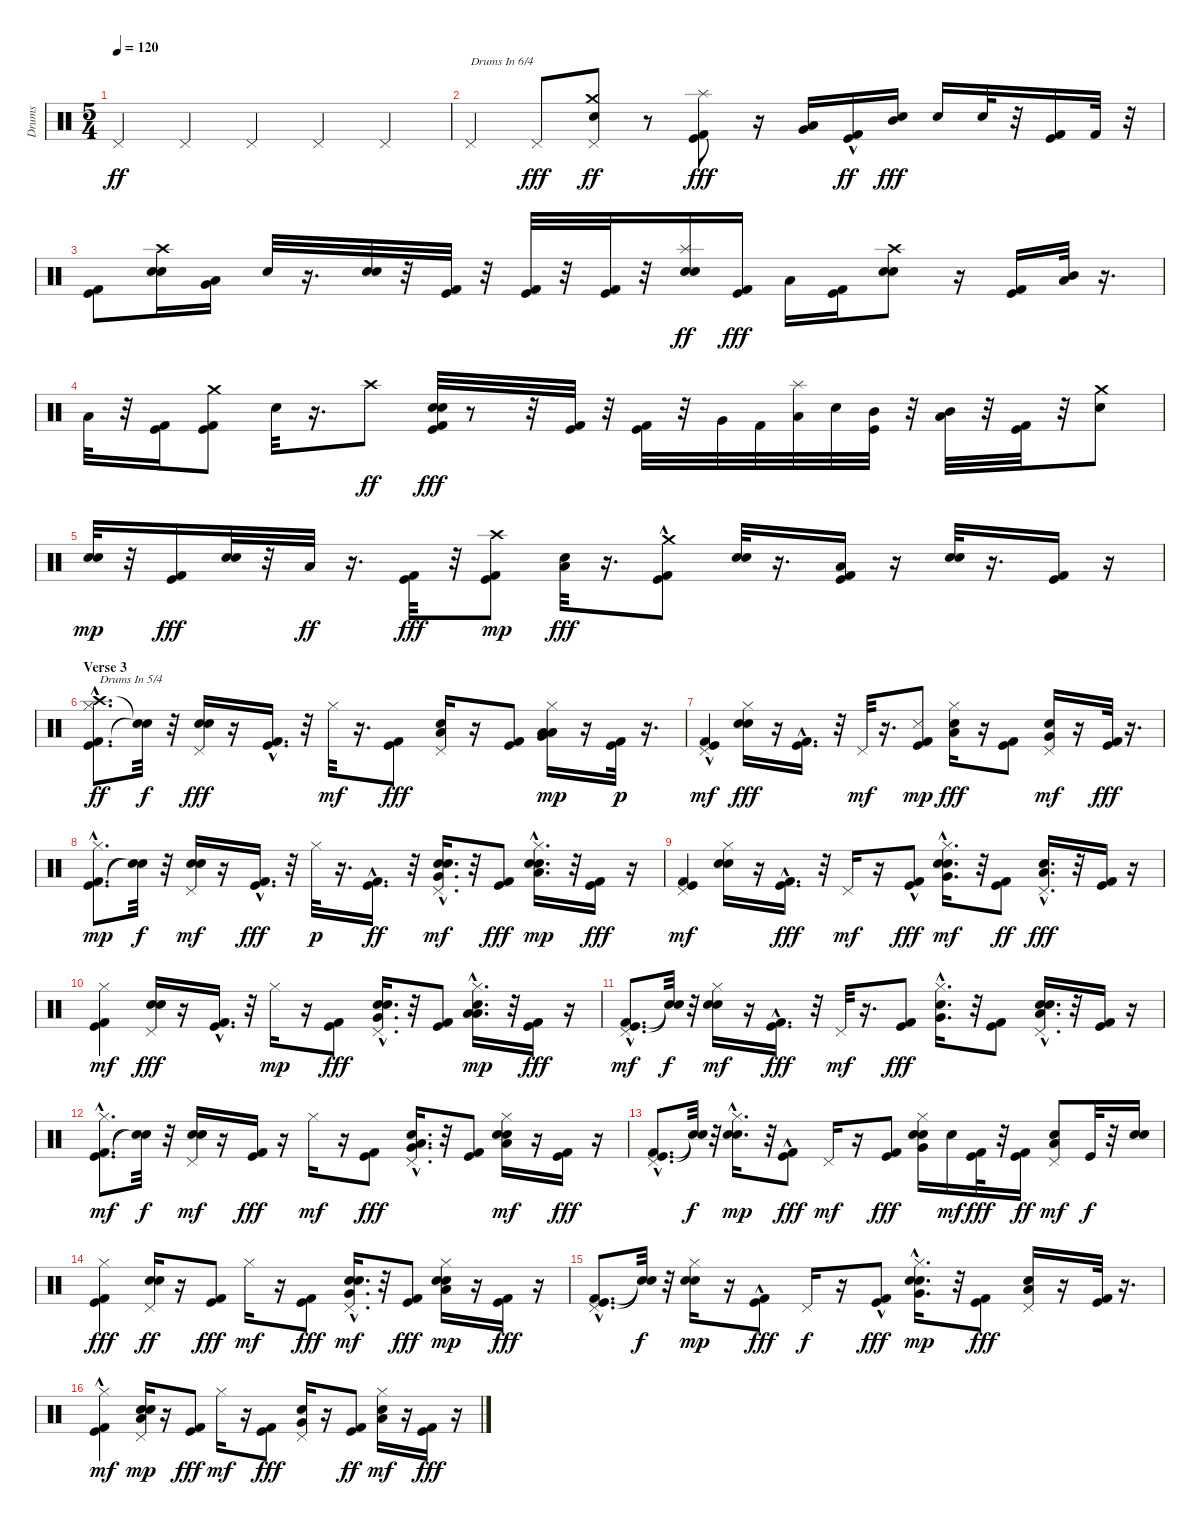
\track ("Drums" "Drums") {instrument percussion}
\staff {score}
\articulation defaults
\ts (5 4)
\tempo 120
\clef neutral
\ks c "Pedal Hi-Hat (hit)".4{dy ff} "Pedal Hi-Hat (hit)".4 "Pedal Hi-Hat (hit)".4 "Pedal Hi-Hat (hit)".4 "Pedal Hi-Hat (hit)".4
|
"Pedal Hi-Hat (hit)".4{txt "Drums In 6/4"} "Pedal Hi-Hat (hit)".8{dy fff} ("Crash medium (hit)" "Snare (hit) 2" "Pedal Hi-Hat (hit)").8{dy ff} r.8 ("Splash (hit)" "Kick (hit) 2" "Kick (hit)").8{dy fff} r.16 ("Low Tom (hit)" "Very Low Tom (hit)").16 ("Kick (hit)"{hac} "Kick (hit) 2").16{dy ff} ("Electric Snare (hit)" "Mid Tom (hit)").16{dy fff} "Snare (hit) 2".16 "Electric Snare (hit)".32 r.32 ("Kick (hit) 2" "Kick (hit)").16 "Kick (hit) 2".32 r.32 |
("Kick (hit) 2" "Kick (hit)").8 ("Crash high (hit)" "Electric Snare (hit)" "Snare (hit) 2").16 ("Very Low Tom (hit)" "Low Tom (hit)").16 "Electric Snare (hit)".32 r.16{d} ("Electric Snare (hit)" "Snare (hit) 2").32 r.32 ("Kick (hit) 2" "Kick (hit)").32 r.32 ("Kick (hit) 2" "Kick (hit)").32 r.32 ("Kick (hit)" "Kick (hit) 2").32 r.32 ("Splash (hit)" "Electric Snare (hit)" "Snare (hit) 2").16{dy ff} ("Kick (hit) 2" "Kick (hit)").16{dy fff} "Low Floor Tom (hit)".16 ("Kick (hit)" "Kick (hit) 2").16 ("Crash high (hit)" "Electric Snare (hit)" "Snare (hit) 2").8 r.16 ("Kick (hit) 2" "Kick (hit)").16 ("Low Tom (hit)" "Mid Tom (hit)").32 r.16{d} |
"Low Floor Tom (hit)".32 r.32 ("Kick (hit) 2" "Kick (hit)").16 ("Crash medium (hit)" "Kick (hit)" "Kick (hit) 2").8 "Snare (hit) 2".32 r.16{d} "Crash high (hit)".8{dy ff} ("Kick (hit) 2" "Kick (hit)" "Snare (hit) 2" "Electric Snare (hit)").32{dy fff} r.8 r.32 ("Kick (hit) 2" "Kick (hit)").32 r.32 ("Kick (hit)" "Kick (hit) 2").32 r.32 "Very Low Tom (hit)".32 "Kick (hit) 2".32 ("Splash (hit)" "Low Tom (hit)").32 "Electric Snare (hit)".32 ("Mid Tom (hit)" "Kick (hit)").32 r.32 ("Mid Tom (hit)" "Low Tom (hit)").32 r.32 ("Kick (hit)" "Kick (hit) 2").32 r.32 ("Snare (hit) 2" "Crash medium (hit)").8 |
("Snare (hit) 2" "Electric Snare (hit)").32{dy mp} r.32 ("Kick (hit) 2" "Kick (hit)").16{dy fff} ("Electric Snare (hit)" "Snare (hit) 2").32 r.32 "Low Floor Tom (hit)".32{dy ff} r.16{d} ("Kick (hit) 2" "Kick (hit)").32{dy fff} r.32 ("Crash high (hit)" "Kick (hit) 2" "Kick (hit)").8{dy mp} ("Electric Snare (hit)" "Low Floor Tom (hit)").32{dy fff} r.16{d} ("Crash medium (hit)" "Kick (hit)"{hac} "Kick (hit) 2"{hac}).8 ("Snare (hit) 2" "Electric Snare (hit)").32 r.16{d} ("Low Floor Tom (hit)" "Kick (hit)" "Kick (hit) 2").16 r.16 ("Electric Snare (hit)" "Snare (hit) 2").32 r.16{d} ("Kick (hit) 2" "Kick (hit)").16 r.16 |
\section ("" "Verse 3")
("Crash high (hit)" "Kick (hit) 2"{hac} "Kick (hit)"{hac} "Hi-Hat (closed)").8{d txt "Drums In 5/4" dy ff} ("Snare (hit)"{t} "Snare (hit)"{t}).32{dy f} r.32 ("Electric Snare (hit)" "Snare (hit) 2" "Pedal Hi-Hat (hit)").16{dy fff} r.16 ("Kick (hit) 2" "Kick (hit)"{hac}).16{d} r.32 "Hi-Hat (closed)".32{dy mf} r.16{d} ("Kick (hit) 2" "Kick (hit)").8{dy fff} ("Snare (hit) 2" "Low Floor Tom (hit)" "Pedal Hi-Hat (hit)").16 r.16 ("Kick (hit)" "Kick (hit) 2").8 ("Low Tom (hit)" "Very Low Tom (hit)" "Low Floor Tom (hit)" "Hi-Hat (closed)").16{dy mp} r.16 ("Kick (hit) 2" "Kick (hit)").32{dy p} r.16{d} |
("Kick (hit) 2"{hac} "Kick (hit)" "Pedal Hi-Hat (hit)").4{dy mf} ("Snare (hit) 2" "Electric Snare (hit)" "Hi-Hat (closed)").16{dy fff} r.16 ("Kick (hit)" "Kick (hit) 2"{hac}).16{d} r.32 "Pedal Hi-Hat (hit)".32{dy mf} r.16{d} ("Kick (hit) 2" "Kick (hit)" "Metronome (hit)").8{dy mp} ("Hi-Hat (closed)" "Snare (hit) 2" "Low Floor Tom (hit)").16{dy fff} r.16 ("Kick (hit)" "Kick (hit) 2").8 ("Very Low Tom (hit)" "Snare (hit) 2" "Pedal Hi-Hat (hit)").16{dy mf} r.16 ("Kick (hit) 2" "Kick (hit)").32{dy fff} r.16{d} |
("Kick (hit) 2"{hac} "Kick (hit)"{hac} "Hi-Hat (closed)").8{d dy mp} ("Snare (hit)"{t} "Snare (hit)"{t}).32{dy f} r.32 ("Snare (hit) 2" "Electric Snare (hit)" "Pedal Hi-Hat (hit)").16{dy mf} r.16 ("Kick (hit)"{hac} "Kick (hit) 2"{hac}).16{d dy fff} r.32 "Hi-Hat (closed)".32{dy p} r.16{d} ("Kick (hit)"{hac} "Kick (hit) 2"{hac}).16{d dy ff} r.32 ("Electric Snare (hit)" "Very Low Tom (hit)"{hac} "Snare (hit) 2"{hac} "Pedal Hi-Hat (hit)").16{d dy mf} r.32 ("Kick (hit) 2" "Kick (hit)").8{dy fff} ("Electric Snare (hit)" "Low Tom (hit)"{hac} "Snare (hit) 2"{hac} "Hi-Hat (closed)").16{d dy mp} r.32 ("Kick (hit) 2" "Kick (hit)").16{dy fff} r.16 |
("Kick (hit) 2" "Kick (hit)" "Pedal Hi-Hat (hit)").4{dy mf} ("Electric Snare (hit)" "Snare (hit) 2" "Hi-Hat (closed)").16 r.16 ("Kick (hit) 2"{hac} "Kick (hit)"{hac}).16{d dy fff} r.32 "Pedal Hi-Hat (hit)".16{dy mf} r.16 ("Kick (hit) 2"{hac} "Kick (hit)").8{dy fff} ("Electric Snare (hit)" "Very Low Tom (hit)"{hac} "Snare (hit) 2"{hac} "Hi-Hat (closed)").16{d dy mf} r.32 ("Kick (hit) 2" "Kick (hit)").8{dy ff} ("Low Tom (hit)"{hac} "Snare (hit) 2" "Pedal Hi-Hat (hit)").16{d dy fff} r.32 ("Kick (hit)" "Kick (hit) 2").16 r.16 |
("Kick (hit) 2" "Kick (hit)" "Hi-Hat (closed)").4{dy mf} ("Snare (hit) 2" "Electric Snare (hit)" "Pedal Hi-Hat (hit)").16{dy fff} r.16 ("Kick (hit) 2"{hac} "Kick (hit)"{hac}).16{d} r.32 "Hi-Hat (closed)".16{dy mp} r.16 ("Kick (hit)" "Kick (hit) 2").8{dy fff} ("Pedal Hi-Hat (hit)" "Electric Snare (hit)" "Snare (hit) 2"{hac} "Very Low Tom (hit)"{hac}).16{d} r.32 ("Kick (hit) 2" "Kick (hit)").8 ("Low Floor Tom (hit)" "Snare (hit) 2"{hac} "Low Tom (hit)"{hac} "Hi-Hat (closed)").16{d dy mp} r.32 ("Kick (hit)" "Kick (hit) 2").16{dy fff} r.16 |
("Kick (hit) 2"{hac} "Kick (hit)"{hac} "Pedal Hi-Hat (hit)").8{d dy mf} ("Snare (hit)"{t} "Snare (hit)"{t}).32{dy f} r.32 ("Electric Snare (hit)" "Snare (hit) 2" "Hi-Hat (closed)").16{dy mf} r.16 ("Kick (hit) 2"{hac} "Kick (hit)"{hac}).16{d dy fff} r.32 "Pedal Hi-Hat (hit)".32{dy mf} r.16{d} ("Kick (hit) 2" "Kick (hit)").8{dy fff} ("Hi-Hat (closed)" "Snare (hit) 2"{hac} "Very Low Tom (hit)"{hac}).16{d} r.32 ("Kick (hit) 2" "Kick (hit)").8 ("Pedal Hi-Hat (hit)" "Electric Snare (hit)" "Low Tom (hit)"{hac} "Snare (hit) 2"{hac}).16{d} r.32 ("Kick (hit) 2" "Kick (hit)").16 r.16 |
("Kick (hit) 2"{hac} "Kick (hit)"{hac} "Hi-Hat (closed)").8{d dy mf} ("Snare (hit)"{t} "Snare (hit)"{t}).32{dy f} r.32 ("Electric Snare (hit)" "Snare (hit) 2" "Pedal Hi-Hat (hit)").16{dy mf} r.16 ("Kick (hit) 2" "Kick (hit)").16{dy fff} r.16 "Hi-Hat (closed)".16{dy mf} r.16 ("Kick (hit)" "Kick (hit) 2").8{dy fff} ("Snare (hit) 2" "Very Low Tom (hit)"{hac} "Low Floor Tom (hit)" "Pedal Hi-Hat (hit)").16{d} r.32 ("Kick (hit) 2" "Kick (hit)").8 ("Low Tom (hit)" "Snare (hit) 2" "Electric Snare (hit)" "Hi-Hat (closed)").16{dy mf} r.16 ("Kick (hit)" "Kick (hit) 2").16{dy fff} r.16 |
("Kick (hit)"{hac} "Kick (hit) 2"{hac} "Pedal Hi-Hat (hit)").8{d} ("Snare (hit)"{t} "Snare (hit)"{t}).32{dy f} r.32 ("Snare (hit) 2" "Electric Snare (hit)"{hac} "Hi-Hat (closed)").16{d dy mp} r.32 ("Kick (hit) 2"{hac} "Kick (hit)").8{dy fff} "Pedal Hi-Hat (hit)".16{dy mf} r.16 ("Kick (hit) 2" "Kick (hit)").8{dy fff} ("Hi-Hat (closed)" "Electric Snare (hit)" "Very Low Tom (hit)" "Snare (hit) 2").16 "Snare (hit) 2".16{dy mf} ("Kick (hit) 2" "Kick (hit)").32{dy fff} r.32 ("Kick (hit)" "Kick (hit) 2").16{dy ff} ("Snare (hit) 2" "Low Tom (hit)" "Pedal Hi-Hat (hit)").8{dy mf} "Kick (hit)".32{dy f} r.32 ("Snare (hit) 2" "Electric Snare (hit)").16 |
("Hi-Hat (closed)" "Kick (hit) 2" "Kick (hit)").4{dy fff} ("Electric Snare (hit)" "Snare (hit) 2" "Pedal Hi-Hat (hit)").16{dy ff} r.16 ("Kick (hit) 2" "Kick (hit)").8{dy fff} "Hi-Hat (closed)".16{dy mf} r.16 ("Kick (hit)" "Kick (hit) 2").8{dy fff} ("Electric Snare (hit)" "Very Low Tom (hit)"{hac} "Snare (hit) 2"{hac} "Pedal Hi-Hat (hit)").16{d dy mf} r.32 ("Kick (hit) 2" "Kick (hit)").8{dy fff} ("Electric Snare (hit)" "Low Tom (hit)" "Snare (hit) 2" "Hi-Hat (closed)").16{dy mp} r.16 ("Kick (hit)" "Kick (hit) 2").16{dy fff} r.16 |
("Kick (hit) 2"{hac} "Kick (hit)"{hac} "Pedal Hi-Hat (hit)").8{d} ("Snare (hit)"{t} "Snare (hit)"{t}).32{dy f} r.32 ("Electric Snare (hit)" "Snare (hit) 2" "Hi-Hat (closed)").16{dy mp} r.16 ("Kick (hit) 2"{hac} "Kick (hit)").8{dy fff} "Pedal Hi-Hat (hit)".16{dy f} r.16 ("Kick (hit) 2"{hac} "Kick (hit)").8{dy fff} ("Electric Snare (hit)" "Very Low Tom (hit)"{hac} "Snare (hit) 2"{hac} "Hi-Hat (closed)").16{d dy mp} r.32 ("Kick (hit)" "Kick (hit) 2").8{dy fff} ("Low Tom (hit)" "Snare (hit) 2" "Pedal Hi-Hat (hit)").16 r.16 ("Kick (hit) 2" "Kick (hit)").32 r.16{d} |
("Kick (hit) 2"{hac} "Kick (hit)" "Hi-Hat (closed)").4{dy mf} ("Low Floor Tom (hit)" "Electric Snare (hit)" "Snare (hit) 2" "Pedal Hi-Hat (hit)").16{dy mp} r.16 ("Kick (hit) 2" "Kick (hit)").8{dy fff} "Hi-Hat (closed)".16{dy mf} r.16 ("Kick (hit) 2" "Kick (hit)").8{dy fff} ("Snare (hit) 2" "Very Low Tom (hit)" "Pedal Hi-Hat (hit)").16 r.16 ("Kick (hit)" "Kick (hit) 2").8{dy ff} ("Low Tom (hit)" "Snare (hit) 2" "Hi-Hat (closed)").16{dy mf} r.16 ("Kick (hit)" "Kick (hit) 2").16{dy fff} r.16
